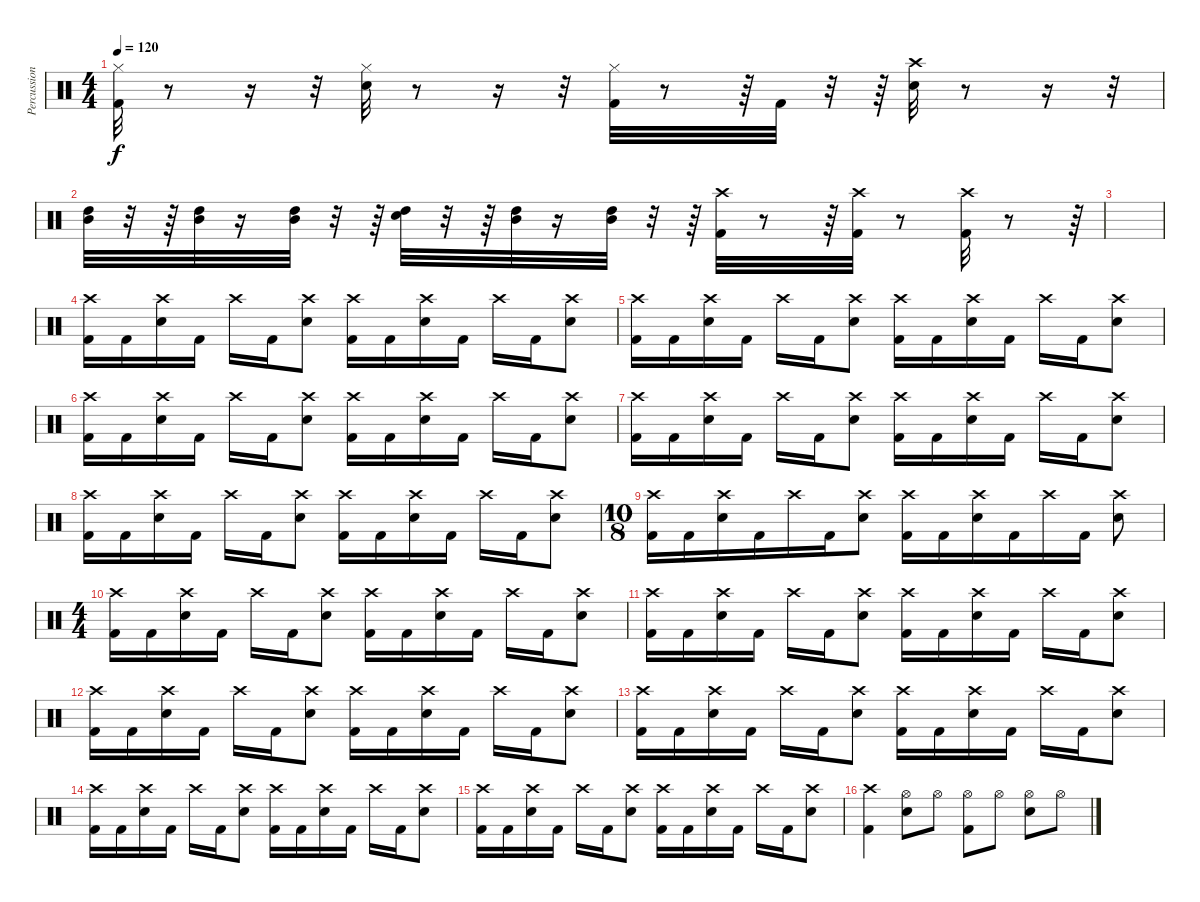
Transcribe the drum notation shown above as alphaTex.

\track ("Percussion" "Percussion") {instrument percussion}
\staff {score}
\articulation defaults
\ts (4 4)
\tempo 120
\clef neutral
\ks c
("Hi-Hat (closed)" "Kick (hit) 2").32{dy f} r.8 r.16 r.32 ("Snare (hit) 2" "Hi-Hat (closed)").32 r.8 r.16 r.32 ("Kick (hit) 2" "Hi-Hat (closed)").32 r.8 r.64 "Kick (hit) 2".32 r.32 r.64 ("Snare (hit) 2" "Crash high (hit)").32 r.8 r.16 r.32 |
("High Tom (hit)" "Mid Tom (hit)").32 r.32 r.64 ("High Tom (hit)" "Mid Tom (hit)").32 r.16 ("High Tom (hit)" "Mid Tom (hit)").32 r.32 r.64 ("Snare (hit) 2" "High Tom (hit)").32 r.32 r.64 ("High Tom (hit)" "Mid Tom (hit)").32 r.16 ("High Tom (hit)" "Mid Tom (hit)").32 r.32 r.64 ("Kick (hit) 2" "Crash high (hit)").32 r.8 r.64 ("Kick (hit) 2" "Crash high (hit)").32 r.8 ("Kick (hit) 2" "Crash high (hit)").32 r.8 r.64 |
|
("Kick (hit) 2" "Crash high (hit)").16 "Kick (hit) 2".16 ("Electric Snare (hit)" "Crash high (hit)").16 "Kick (hit) 2".16 "Crash high (hit)".16 "Kick (hit) 2".16 ("Electric Snare (hit)" "Crash high (hit)").8 ("Kick (hit) 2" "Crash high (hit)").16 "Kick (hit) 2".16 ("Electric Snare (hit)" "Crash high (hit)").16 "Kick (hit) 2".16 "Crash high (hit)".16 "Kick (hit) 2".16 ("Electric Snare (hit)" "Crash high (hit)").8 |
("Kick (hit) 2" "Crash high (hit)").16 "Kick (hit) 2".16 ("Electric Snare (hit)" "Crash high (hit)").16 "Kick (hit) 2".16 "Crash high (hit)".16 "Kick (hit) 2".16 ("Electric Snare (hit)" "Crash high (hit)").8 ("Kick (hit) 2" "Crash high (hit)").16 "Kick (hit) 2".16 ("Electric Snare (hit)" "Crash high (hit)").16 "Kick (hit) 2".16 "Crash high (hit)".16 "Kick (hit) 2".16 ("Electric Snare (hit)" "Crash high (hit)").8 |
("Kick (hit) 2" "Crash high (hit)").16 "Kick (hit) 2".16 ("Electric Snare (hit)" "Crash high (hit)").16 "Kick (hit) 2".16 "Crash high (hit)".16 "Kick (hit) 2".16 ("Electric Snare (hit)" "Crash high (hit)").8 ("Kick (hit) 2" "Crash high (hit)").16 "Kick (hit) 2".16 ("Electric Snare (hit)" "Crash high (hit)").16 "Kick (hit) 2".16 "Crash high (hit)".16 "Kick (hit) 2".16 ("Electric Snare (hit)" "Crash high (hit)").8 |
("Kick (hit) 2" "Crash high (hit)").16 "Kick (hit) 2".16 ("Electric Snare (hit)" "Crash high (hit)").16 "Kick (hit) 2".16 "Crash high (hit)".16 "Kick (hit) 2".16 ("Electric Snare (hit)" "Crash high (hit)").8 ("Kick (hit) 2" "Crash high (hit)").16 "Kick (hit) 2".16 ("Electric Snare (hit)" "Crash high (hit)").16 "Kick (hit) 2".16 "Crash high (hit)".16 "Kick (hit) 2".16 ("Electric Snare (hit)" "Crash high (hit)").8 |
("Kick (hit) 2" "Crash high (hit)").16 "Kick (hit) 2".16 ("Electric Snare (hit)" "Crash high (hit)").16 "Kick (hit) 2".16 "Crash high (hit)".16 "Kick (hit) 2".16 ("Electric Snare (hit)" "Crash high (hit)").8 ("Kick (hit) 2" "Crash high (hit)").16 "Kick (hit) 2".16 ("Electric Snare (hit)" "Crash high (hit)").16 "Kick (hit) 2".16 "Crash high (hit)".16 "Kick (hit) 2".16 ("Electric Snare (hit)" "Crash high (hit)").8 |
\ts (10 8)
("Kick (hit) 2" "Crash high (hit)").16 "Kick (hit) 2".16 ("Electric Snare (hit)" "Crash high (hit)").16 "Kick (hit) 2".16 "Crash high (hit)".16 "Kick (hit) 2".16 ("Electric Snare (hit)" "Crash high (hit)").8 ("Kick (hit) 2" "Crash high (hit)").16 "Kick (hit) 2".16 ("Electric Snare (hit)" "Crash high (hit)").16 "Kick (hit) 2".16 "Crash high (hit)".16 "Kick (hit) 2".16 ("Electric Snare (hit)" "Crash high (hit)").8 |
\ts (4 4)
("Kick (hit) 2" "Crash high (hit)").16 "Kick (hit) 2".16 ("Electric Snare (hit)" "Crash high (hit)").16 "Kick (hit) 2".16 "Crash high (hit)".16 "Kick (hit) 2".16 ("Electric Snare (hit)" "Crash high (hit)").8 ("Kick (hit) 2" "Crash high (hit)").16 "Kick (hit) 2".16 ("Electric Snare (hit)" "Crash high (hit)").16 "Kick (hit) 2".16 "Crash high (hit)".16 "Kick (hit) 2".16 ("Electric Snare (hit)" "Crash high (hit)").8 |
("Kick (hit) 2" "Crash high (hit)").16 "Kick (hit) 2".16 ("Electric Snare (hit)" "Crash high (hit)").16 "Kick (hit) 2".16 "Crash high (hit)".16 "Kick (hit) 2".16 ("Electric Snare (hit)" "Crash high (hit)").8 ("Kick (hit) 2" "Crash high (hit)").16 "Kick (hit) 2".16 ("Electric Snare (hit)" "Crash high (hit)").16 "Kick (hit) 2".16 "Crash high (hit)".16 "Kick (hit) 2".16 ("Electric Snare (hit)" "Crash high (hit)").8 |
("Kick (hit) 2" "Crash high (hit)").16 "Kick (hit) 2".16 ("Electric Snare (hit)" "Crash high (hit)").16 "Kick (hit) 2".16 "Crash high (hit)".16 "Kick (hit) 2".16 ("Electric Snare (hit)" "Crash high (hit)").8 ("Kick (hit) 2" "Crash high (hit)").16 "Kick (hit) 2".16 ("Electric Snare (hit)" "Crash high (hit)").16 "Kick (hit) 2".16 "Crash high (hit)".16 "Kick (hit) 2".16 ("Electric Snare (hit)" "Crash high (hit)").8 |
("Kick (hit) 2" "Crash high (hit)").16 "Kick (hit) 2".16 ("Electric Snare (hit)" "Crash high (hit)").16 "Kick (hit) 2".16 "Crash high (hit)".16 "Kick (hit) 2".16 ("Electric Snare (hit)" "Crash high (hit)").8 ("Kick (hit) 2" "Crash high (hit)").16 "Kick (hit) 2".16 ("Electric Snare (hit)" "Crash high (hit)").16 "Kick (hit) 2".16 "Crash high (hit)".16 "Kick (hit) 2".16 ("Electric Snare (hit)" "Crash high (hit)").8 |
("Kick (hit) 2" "Crash high (hit)").16 "Kick (hit) 2".16 ("Electric Snare (hit)" "Crash high (hit)").16 "Kick (hit) 2".16 "Crash high (hit)".16 "Kick (hit) 2".16 ("Electric Snare (hit)" "Crash high (hit)").8 ("Kick (hit) 2" "Crash high (hit)").16 "Kick (hit) 2".16 ("Electric Snare (hit)" "Crash high (hit)").16 "Kick (hit) 2".16 "Crash high (hit)".16 "Kick (hit) 2".16 ("Electric Snare (hit)" "Crash high (hit)").8 |
("Kick (hit) 2" "Crash high (hit)").16 "Kick (hit) 2".16 ("Electric Snare (hit)" "Crash high (hit)").16 "Kick (hit) 2".16 "Crash high (hit)".16 "Kick (hit) 2".16 ("Electric Snare (hit)" "Crash high (hit)").8 ("Kick (hit) 2" "Crash high (hit)").16 "Kick (hit) 2".16 ("Electric Snare (hit)" "Crash high (hit)").16 "Kick (hit) 2".16 "Crash high (hit)".16 "Kick (hit) 2".16 ("Electric Snare (hit)" "Crash high (hit)").8 |
("Crash high (hit)" "Kick (hit) 2").4 ("Hi-Hat (open)" "Electric Snare (hit)").8 "Hi-Hat (open)".8 ("Hi-Hat (open)" "Kick (hit) 2").8 "Hi-Hat (open)".8 ("Hi-Hat (open)" "Electric Snare (hit)").8 "Hi-Hat (open)".8
